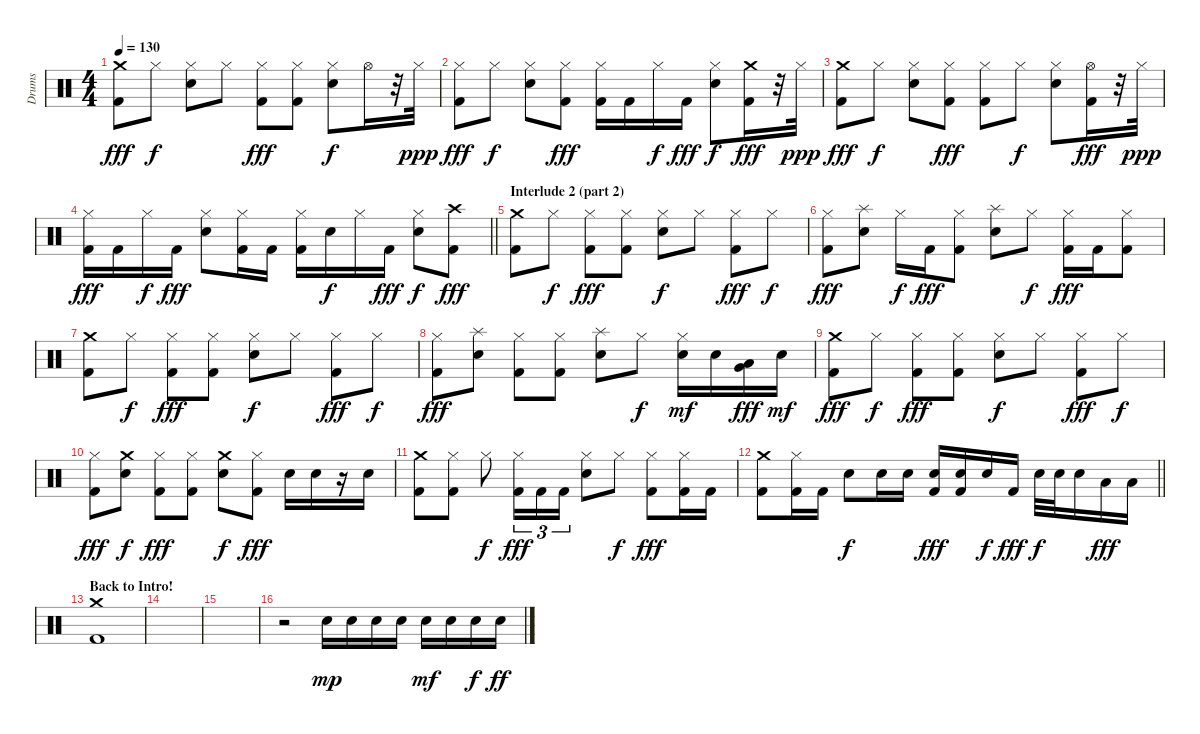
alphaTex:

\track ("Drums" "Drums") {instrument percussion}
\staff {score}
\articulation defaults
\ts (4 4)
\tempo 130
\clef neutral
\ks c
("Crash medium (hit)" "Kick (hit) 2").8{dy fff} "Hi-Hat (closed)".8{dy f} ("Hi-Hat (closed)" "Snare (hit) 2").8 "Hi-Hat (closed)".8 ("Hi-Hat (closed)" "Kick (hit) 2").8{dy fff} ("Hi-Hat (closed)" "Kick (hit) 2").8 ("Hi-Hat (closed)" "Snare (hit) 2").8{dy f} "Hi-Hat (open)".16 r.32 "Hi-Hat (closed)".32{dy ppp} |
("Hi-Hat (closed)" "Kick (hit) 2").8{dy fff} "Hi-Hat (closed)".8{dy f} ("Hi-Hat (closed)" "Snare (hit) 2").8 ("Hi-Hat (closed)" "Kick (hit) 2").8{dy fff} ("Hi-Hat (closed)" "Kick (hit) 2").16 "Kick (hit) 2".16 "Hi-Hat (closed)".16{dy f} "Kick (hit) 2".16{dy fff} ("Hi-Hat (closed)" "Snare (hit) 2").8{dy f} ("Crash medium (hit)" "Kick (hit) 2").16{dy fff} r.32 "Hi-Hat (closed)".32{dy ppp} |
("Crash medium (hit)" "Kick (hit) 2").8{dy fff} "Hi-Hat (closed)".8{dy f} ("Hi-Hat (closed)" "Snare (hit) 2").8 ("Hi-Hat (closed)" "Kick (hit) 2").8{dy fff} ("Hi-Hat (closed)" "Kick (hit) 2").8 "Hi-Hat (closed)".8{dy f} ("Hi-Hat (closed)" "Snare (hit) 2").8 ("Hi-Hat (open)" "Kick (hit) 2").16{dy fff} r.32 "Hi-Hat (closed)".32{dy ppp} |
\barLineRight lightlight
("Hi-Hat (closed)" "Kick (hit) 2").16{dy fff} "Kick (hit) 2".16 "Hi-Hat (closed)".16{dy f} "Kick (hit) 2".16{dy fff} ("Hi-Hat (closed)" "Snare (hit) 2").8 ("Hi-Hat (closed)" "Kick (hit) 2").16 "Kick (hit) 2".16 ("Hi-Hat (closed)" "Kick (hit) 2").16 "Snare (hit) 2".16{dy f} "Hi-Hat (closed)".16 "Kick (hit) 2".16{dy fff} ("Hi-Hat (closed)" "Snare (hit) 2").8{dy f} ("Crash high (hit)" "Kick (hit) 2").8{dy fff} |
\section ("" "Interlude 2 (part 2)")
("Crash medium (hit)" "Kick (hit) 2").8 "Hi-Hat (closed)".8{dy f} ("Hi-Hat (closed)" "Kick (hit) 2").8{dy fff} ("Hi-Hat (closed)" "Kick (hit) 2").8 ("Hi-Hat (closed)" "Snare (hit) 2").8{dy f} "Hi-Hat (closed)".8 ("Hi-Hat (closed)" "Kick (hit) 2").8{dy fff} "Hi-Hat (closed)".8{dy f} |
("Hi-Hat (closed)" "Kick (hit) 2").8{dy fff} ("Splash (hit)" "Snare (hit) 2").8 "Hi-Hat (closed)".16{dy f} "Kick (hit) 2".16{dy fff} ("Hi-Hat (closed)" "Kick (hit) 2").8 ("Splash (hit)" "Snare (hit) 2").8 "Hi-Hat (closed)".8{dy f} ("Hi-Hat (closed)" "Kick (hit) 2").16{dy fff} "Kick (hit) 2".16 ("Hi-Hat (closed)" "Kick (hit) 2").8 |
("Crash medium (hit)" "Kick (hit) 2").8 "Hi-Hat (closed)".8{dy f} ("Hi-Hat (closed)" "Kick (hit) 2").8{dy fff} ("Hi-Hat (closed)" "Kick (hit) 2").8 ("Hi-Hat (closed)" "Snare (hit) 2").8{dy f} "Hi-Hat (closed)".8 ("Hi-Hat (closed)" "Kick (hit) 2").8{dy fff} "Hi-Hat (closed)".8{dy f} |
("Hi-Hat (closed)" "Kick (hit) 2").8{dy fff} ("Splash (hit)" "Snare (hit) 2").8 ("Hi-Hat (closed)" "Kick (hit) 2").8 ("Hi-Hat (closed)" "Kick (hit) 2").8 ("Splash (hit)" "Snare (hit) 2").8 "Hi-Hat (closed)".8{dy f} ("Hi-Hat (closed)" "Snare (hit) 2").16{dy mf} "Snare (hit) 2".16 ("Very Low Tom (hit)" "Low Tom (hit)").16{dy fff} "Snare (hit) 2".16{dy mf} |
("Crash medium (hit)" "Kick (hit) 2").8{dy fff} "Hi-Hat (closed)".8{dy f} ("Hi-Hat (closed)" "Kick (hit) 2").8{dy fff} ("Hi-Hat (closed)" "Kick (hit) 2").8 ("Hi-Hat (closed)" "Snare (hit) 2").8{dy f} "Hi-Hat (closed)".8 ("Hi-Hat (closed)" "Kick (hit) 2").8{dy fff} "Hi-Hat (closed)".8{dy f} |
("Hi-Hat (closed)" "Kick (hit) 2").8{dy fff} ("Crash medium (hit)" "Snare (hit) 2").8{dy f} ("Hi-Hat (closed)" "Kick (hit) 2").8{dy fff} ("Hi-Hat (closed)" "Kick (hit) 2").8 ("Crash medium (hit)" "Snare (hit) 2").8{dy f} ("Hi-Hat (closed)" "Kick (hit) 2").8{dy fff} "Snare (hit) 2".16 "Snare (hit) 2".16 r.16 "Snare (hit) 2".16 |
("Crash medium (hit)" "Kick (hit) 2").8 ("Hi-Hat (closed)" "Kick (hit) 2").8 "Hi-Hat (closed)".8{dy f} ("Hi-Hat (closed)" "Kick (hit) 2").16{tu (3 2) dy fff} "Kick (hit) 2".16{tu (3 2)} "Kick (hit) 2".16{tu (3 2)} ("Hi-Hat (closed)" "Snare (hit) 2").8 "Hi-Hat (closed)".8{dy f} ("Hi-Hat (closed)" "Kick (hit) 2").8{dy fff} ("Hi-Hat (closed)" "Kick (hit) 2").16 "Kick (hit) 2".16 |
\barLineRight lightlight
("Crash medium (hit)" "Kick (hit) 2").8 ("Hi-Hat (closed)" "Kick (hit) 2").16 "Kick (hit) 2".16 "Snare (hit) 2".8{dy f} "Snare (hit) 2".16 "Snare (hit) 2".16 ("Snare (hit) 2" "Kick (hit) 2").16{dy fff} ("Snare (hit) 2" "Kick (hit) 2").16 "Snare (hit) 2".16{dy f} "Kick (hit) 2".16{dy fff} "Snare (hit) 2".32{dy f} "Snare (hit) 2".32 "Snare (hit) 2".16 "Low Tom (hit)".16{dy fff} "Low Tom (hit)".16 |
\section ("" "Back to Intro!")
("Crash medium (hit)" "Kick (hit) 2").1 |
|
|
r.2 "Snare (hit) 2".16{dy mp} "Snare (hit) 2".16 "Snare (hit) 2".16 "Snare (hit) 2".16 "Snare (hit) 2".16{dy mf} "Snare (hit) 2".16 "Snare (hit) 2".16{dy f} "Snare (hit) 2".16{dy ff}
